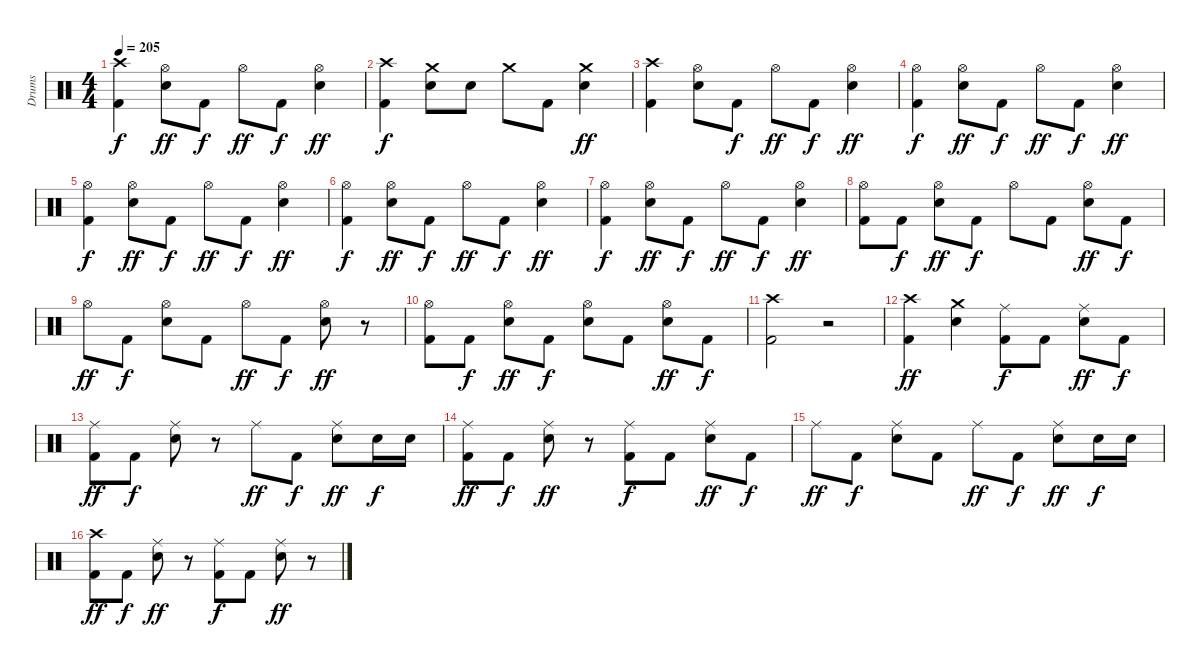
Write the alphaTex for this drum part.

\track ("Drums" "Drums") {instrument percussion}
\staff {score}
\articulation defaults
\ts (4 4)
\tempo 205
\clef neutral
\ks c
("Crash high (hit)" "Kick (hit) 2").4{dy f} ("Hi-Hat (open)" "Electric Snare (hit)").8{dy ff} "Kick (hit) 2".8{dy f} "Hi-Hat (open)".8{dy ff} "Kick (hit) 2".8{dy f} ("Hi-Hat (open)" "Electric Snare (hit)").4{dy ff} |
("Crash high (hit)" "Kick (hit) 2").4{dy f} ("Crash medium (hit)" "Electric Snare (hit)").8 "Electric Snare (hit)".8 "Crash medium (hit)".8 "Kick (hit) 2".8 ("Crash medium (hit)" "Electric Snare (hit)").4{dy ff} |
("Crash high (hit)" "Kick (hit) 2").4 ("Hi-Hat (open)" "Electric Snare (hit)").8 "Kick (hit) 2".8{dy f} "Hi-Hat (open)".8{dy ff} "Kick (hit) 2".8{dy f} ("Hi-Hat (open)" "Electric Snare (hit)").4{dy ff} |
("Hi-Hat (open)" "Kick (hit) 2").4{dy f} ("Hi-Hat (open)" "Electric Snare (hit)").8{dy ff} "Kick (hit) 2".8{dy f} "Hi-Hat (open)".8{dy ff} "Kick (hit) 2".8{dy f} ("Hi-Hat (open)" "Electric Snare (hit)").4{dy ff} |
("Hi-Hat (open)" "Kick (hit) 2").4{dy f} ("Hi-Hat (open)" "Electric Snare (hit)").8{dy ff} "Kick (hit) 2".8{dy f} "Hi-Hat (open)".8{dy ff} "Kick (hit) 2".8{dy f} ("Hi-Hat (open)" "Electric Snare (hit)").4{dy ff} |
("Hi-Hat (open)" "Kick (hit) 2").4{dy f} ("Hi-Hat (open)" "Electric Snare (hit)").8{dy ff} "Kick (hit) 2".8{dy f} "Hi-Hat (open)".8{dy ff} "Kick (hit) 2".8{dy f} ("Hi-Hat (open)" "Electric Snare (hit)").4{dy ff} |
("Hi-Hat (open)" "Kick (hit) 2").4{dy f} ("Hi-Hat (open)" "Electric Snare (hit)").8{dy ff} "Kick (hit) 2".8{dy f} "Hi-Hat (open)".8{dy ff} "Kick (hit) 2".8{dy f} ("Hi-Hat (open)" "Electric Snare (hit)").4{dy ff} |
("Hi-Hat (open)" "Kick (hit) 2").8 "Kick (hit) 2".8{dy f} ("Hi-Hat (open)" "Electric Snare (hit)").8{dy ff} "Kick (hit) 2".8{dy f} "Hi-Hat (open)".8 "Kick (hit) 2".8 ("Hi-Hat (open)" "Electric Snare (hit)").8{dy ff} "Kick (hit) 2".8{dy f} |
"Hi-Hat (open)".8{dy ff} "Kick (hit) 2".8{dy f} ("Hi-Hat (open)" "Electric Snare (hit)").8 "Kick (hit) 2".8 "Hi-Hat (open)".8{dy ff} "Kick (hit) 2".8{dy f} ("Hi-Hat (open)" "Electric Snare (hit)").8{dy ff} r.8 |
("Hi-Hat (open)" "Kick (hit) 2").8 "Kick (hit) 2".8{dy f} ("Hi-Hat (open)" "Electric Snare (hit)").8{dy ff} "Kick (hit) 2".8{dy f} ("Hi-Hat (open)" "Electric Snare (hit)").8 "Kick (hit) 2".8 ("Hi-Hat (open)" "Electric Snare (hit)").8{dy ff} "Kick (hit) 2".8{dy f} |
("Crash high (hit)" "Kick (hit) 2").2 r.2 |
("Crash high (hit)" "Kick (hit) 2").4{dy ff} ("Crash medium (hit)" "Electric Snare (hit)").4 ("Ride (middle)" "Kick (hit) 2").8{dy f} "Kick (hit) 2".8 ("Ride (middle)" "Electric Snare (hit)").8{dy ff} "Kick (hit) 2".8{dy f} |
("Ride (middle)" "Kick (hit) 2").8{dy ff} "Kick (hit) 2".8{dy f} ("Ride (middle)" "Electric Snare (hit)").8 r.8 "Ride (middle)".8{dy ff} "Kick (hit) 2".8{dy f} ("Ride (middle)" "Electric Snare (hit)").8{dy ff} "Electric Snare (hit)".16{dy f} "Electric Snare (hit)".16 |
("Ride (middle)" "Kick (hit) 2").8{dy ff} "Kick (hit) 2".8{dy f} ("Ride (middle)" "Electric Snare (hit)").8{dy ff} r.8 ("Ride (middle)" "Kick (hit) 2").8{dy f} "Kick (hit) 2".8 ("Ride (middle)" "Electric Snare (hit)").8{dy ff} "Kick (hit) 2".8{dy f} |
"Ride (middle)".8{dy ff} "Kick (hit) 2".8{dy f} ("Ride (middle)" "Electric Snare (hit)").8 "Kick (hit) 2".8 "Ride (middle)".8{dy ff} "Kick (hit) 2".8{dy f} ("Ride (middle)" "Electric Snare (hit)").8{dy ff} "Electric Snare (hit)".16{dy f} "Electric Snare (hit)".16 |
("Crash high (hit)" "Kick (hit) 2").8{dy ff} "Kick (hit) 2".8{dy f} ("Ride (middle)" "Electric Snare (hit)").8{dy ff} r.8 ("Ride (middle)" "Kick (hit) 2").8{dy f} "Kick (hit) 2".8 ("Ride (middle)" "Electric Snare (hit)").8{dy ff} r.8
